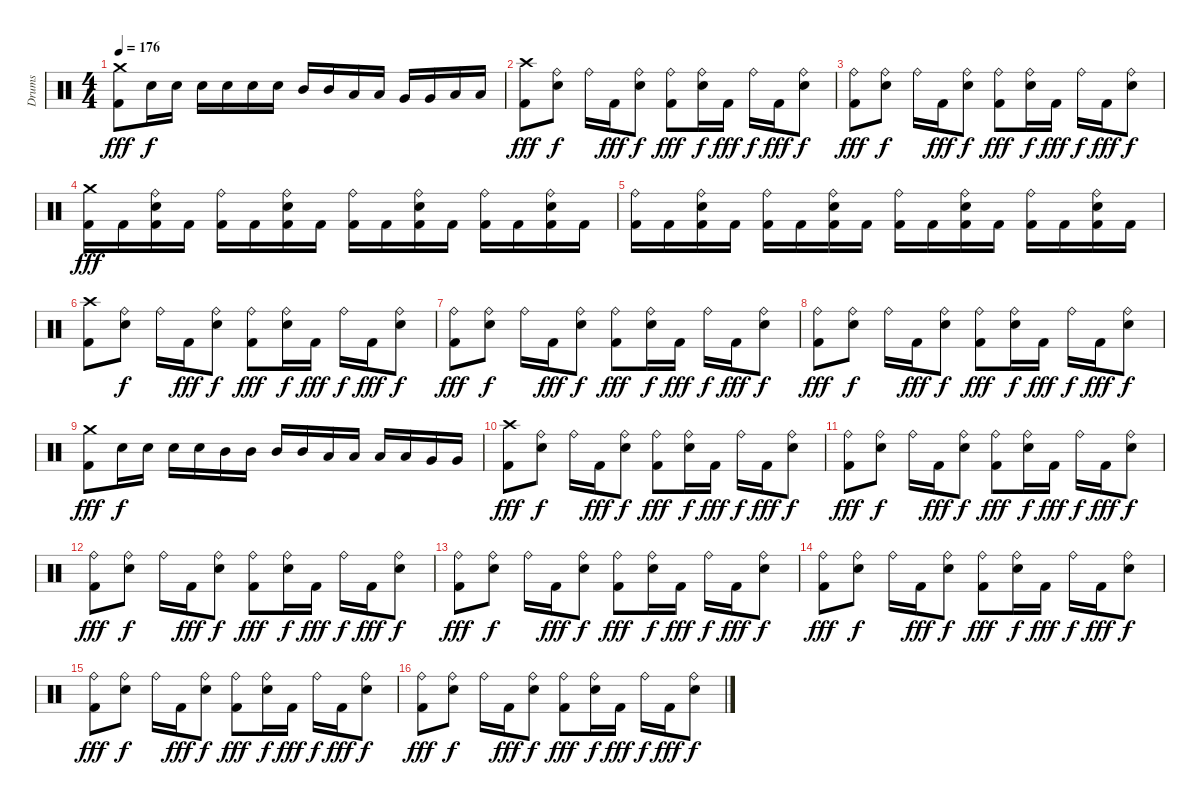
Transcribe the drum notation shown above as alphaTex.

\track ("Drums" "Drums") {instrument percussion}
\staff {score}
\articulation defaults
\ts (4 4)
\tempo 176
\clef neutral
\ks c
("Crash medium (hit)" "Kick (hit) 2").8{dy fff} "Snare (hit) 2".16{dy f} "Snare (hit) 2".16 "Snare (hit) 2".16 "Snare (hit) 2".16 "Snare (hit) 2".16 "Snare (hit) 2".16 "Mid Tom (hit)".16 "Mid Tom (hit)".16 "Low Tom (hit)".16 "Low Tom (hit)".16 "Very Low Tom (hit)".16 "Very Low Tom (hit)".16 "Low Floor Tom (hit)".16 "Low Floor Tom (hit)".16 |
("Crash high (hit)" "Kick (hit) 2").8{dy fff} ("Ride (bell)" "Snare (hit) 2").8{dy f} "Ride (bell)".16 "Kick (hit) 2".16{dy fff} ("Ride (bell)" "Snare (hit) 2").8{dy f} ("Ride (bell)" "Kick (hit) 2").8{dy fff} ("Ride (bell)" "Snare (hit) 2").16{dy f} "Kick (hit) 2".16{dy fff} "Ride (bell)".16{dy f} "Kick (hit) 2".16{dy fff} ("Ride (bell)" "Snare (hit) 2").8{dy f} |
("Ride (bell)" "Kick (hit) 2").8{dy fff} ("Ride (bell)" "Snare (hit) 2").8{dy f} "Ride (bell)".16 "Kick (hit) 2".16{dy fff} ("Ride (bell)" "Snare (hit) 2").8{dy f} ("Ride (bell)" "Kick (hit) 2").8{dy fff} ("Ride (bell)" "Snare (hit) 2").16{dy f} "Kick (hit) 2".16{dy fff} "Ride (bell)".16{dy f} "Kick (hit) 2".16{dy fff} ("Ride (bell)" "Snare (hit) 2").8{dy f} |
("Crash medium (hit)" "Kick (hit) 2").16{dy fff} "Kick (hit) 2".16 ("Ride (bell)" "Snare (hit) 2" "Kick (hit) 2").16 "Kick (hit) 2".16 ("Ride (bell)" "Kick (hit) 2").16 "Kick (hit) 2".16 ("Ride (bell)" "Snare (hit) 2" "Kick (hit) 2").16 "Kick (hit) 2".16 ("Ride (bell)" "Kick (hit) 2").16 "Kick (hit) 2".16 ("Ride (bell)" "Snare (hit) 2" "Kick (hit) 2").16 "Kick (hit) 2".16 ("Ride (bell)" "Kick (hit) 2").16 "Kick (hit) 2".16 ("Ride (bell)" "Snare (hit) 2" "Kick (hit) 2").16 "Kick (hit) 2".16 |
("Ride (bell)" "Kick (hit) 2").16 "Kick (hit) 2".16 ("Ride (bell)" "Snare (hit) 2" "Kick (hit) 2").16 "Kick (hit) 2".16 ("Ride (bell)" "Kick (hit) 2").16 "Kick (hit) 2".16 ("Ride (bell)" "Snare (hit) 2" "Kick (hit) 2").16 "Kick (hit) 2".16 ("Ride (bell)" "Kick (hit) 2").16 "Kick (hit) 2".16 ("Ride (bell)" "Snare (hit) 2" "Kick (hit) 2").16 "Kick (hit) 2".16 ("Ride (bell)" "Kick (hit) 2").16 "Kick (hit) 2".16 ("Ride (bell)" "Snare (hit) 2" "Kick (hit) 2").16 "Kick (hit) 2".16 |
("Crash high (hit)" "Kick (hit) 2").8 ("Ride (bell)" "Snare (hit) 2").8{dy f} "Ride (bell)".16 "Kick (hit) 2".16{dy fff} ("Ride (bell)" "Snare (hit) 2").8{dy f} ("Ride (bell)" "Kick (hit) 2").8{dy fff} ("Ride (bell)" "Snare (hit) 2").16{dy f} "Kick (hit) 2".16{dy fff} "Ride (bell)".16{dy f} "Kick (hit) 2".16{dy fff} ("Ride (bell)" "Snare (hit) 2").8{dy f} |
("Ride (bell)" "Kick (hit) 2").8{dy fff} ("Ride (bell)" "Snare (hit) 2").8{dy f} "Ride (bell)".16 "Kick (hit) 2".16{dy fff} ("Ride (bell)" "Snare (hit) 2").8{dy f} ("Ride (bell)" "Kick (hit) 2").8{dy fff} ("Ride (bell)" "Snare (hit) 2").16{dy f} "Kick (hit) 2".16{dy fff} "Ride (bell)".16{dy f} "Kick (hit) 2".16{dy fff} ("Ride (bell)" "Snare (hit) 2").8{dy f} |
("Ride (bell)" "Kick (hit) 2").8{dy fff} ("Ride (bell)" "Snare (hit) 2").8{dy f} "Ride (bell)".16 "Kick (hit) 2".16{dy fff} ("Ride (bell)" "Snare (hit) 2").8{dy f} ("Ride (bell)" "Kick (hit) 2").8{dy fff} ("Ride (bell)" "Snare (hit) 2").16{dy f} "Kick (hit) 2".16{dy fff} "Ride (bell)".16{dy f} "Kick (hit) 2".16{dy fff} ("Ride (bell)" "Snare (hit) 2").8{dy f} |
("Crash medium (hit)" "Kick (hit) 2").8{dy fff} "Snare (hit) 2".16{dy f} "Snare (hit) 2".16 "Snare (hit) 2".16 "Snare (hit) 2".16 "Mid Tom (hit)".16 "Mid Tom (hit)".16 "Mid Tom (hit)".16 "Mid Tom (hit)".16 "Low Tom (hit)".16 "Low Tom (hit)".16 "Low Tom (hit)".16 "Low Tom (hit)".16 "Very Low Tom (hit)".16 "Very Low Tom (hit)".16 |
("Crash high (hit)" "Kick (hit) 2").8{dy fff} ("Ride (bell)" "Snare (hit) 2").8{dy f} "Ride (bell)".16 "Kick (hit) 2".16{dy fff} ("Ride (bell)" "Snare (hit) 2").8{dy f} ("Ride (bell)" "Kick (hit) 2").8{dy fff} ("Ride (bell)" "Snare (hit) 2").16{dy f} "Kick (hit) 2".16{dy fff} "Ride (bell)".16{dy f} "Kick (hit) 2".16{dy fff} ("Ride (bell)" "Snare (hit) 2").8{dy f} |
("Ride (bell)" "Kick (hit) 2").8{dy fff} ("Ride (bell)" "Snare (hit) 2").8{dy f} "Ride (bell)".16 "Kick (hit) 2".16{dy fff} ("Ride (bell)" "Snare (hit) 2").8{dy f} ("Ride (bell)" "Kick (hit) 2").8{dy fff} ("Ride (bell)" "Snare (hit) 2").16{dy f} "Kick (hit) 2".16{dy fff} "Ride (bell)".16{dy f} "Kick (hit) 2".16{dy fff} ("Ride (bell)" "Snare (hit) 2").8{dy f} |
("Ride (bell)" "Kick (hit) 2").8{dy fff} ("Ride (bell)" "Snare (hit) 2").8{dy f} "Ride (bell)".16 "Kick (hit) 2".16{dy fff} ("Ride (bell)" "Snare (hit) 2").8{dy f} ("Ride (bell)" "Kick (hit) 2").8{dy fff} ("Ride (bell)" "Snare (hit) 2").16{dy f} "Kick (hit) 2".16{dy fff} "Ride (bell)".16{dy f} "Kick (hit) 2".16{dy fff} ("Ride (bell)" "Snare (hit) 2").8{dy f} |
("Ride (bell)" "Kick (hit) 2").8{dy fff} ("Ride (bell)" "Snare (hit) 2").8{dy f} "Ride (bell)".16 "Kick (hit) 2".16{dy fff} ("Ride (bell)" "Snare (hit) 2").8{dy f} ("Ride (bell)" "Kick (hit) 2").8{dy fff} ("Ride (bell)" "Snare (hit) 2").16{dy f} "Kick (hit) 2".16{dy fff} "Ride (bell)".16{dy f} "Kick (hit) 2".16{dy fff} ("Ride (bell)" "Snare (hit) 2").8{dy f} |
("Ride (bell)" "Kick (hit) 2").8{dy fff} ("Ride (bell)" "Snare (hit) 2").8{dy f} "Ride (bell)".16 "Kick (hit) 2".16{dy fff} ("Ride (bell)" "Snare (hit) 2").8{dy f} ("Ride (bell)" "Kick (hit) 2").8{dy fff} ("Ride (bell)" "Snare (hit) 2").16{dy f} "Kick (hit) 2".16{dy fff} "Ride (bell)".16{dy f} "Kick (hit) 2".16{dy fff} ("Ride (bell)" "Snare (hit) 2").8{dy f} |
("Ride (bell)" "Kick (hit) 2").8{dy fff} ("Ride (bell)" "Snare (hit) 2").8{dy f} "Ride (bell)".16 "Kick (hit) 2".16{dy fff} ("Ride (bell)" "Snare (hit) 2").8{dy f} ("Ride (bell)" "Kick (hit) 2").8{dy fff} ("Ride (bell)" "Snare (hit) 2").16{dy f} "Kick (hit) 2".16{dy fff} "Ride (bell)".16{dy f} "Kick (hit) 2".16{dy fff} ("Ride (bell)" "Snare (hit) 2").8{dy f} |
("Ride (bell)" "Kick (hit) 2").8{dy fff} ("Ride (bell)" "Snare (hit) 2").8{dy f} "Ride (bell)".16 "Kick (hit) 2".16{dy fff} ("Ride (bell)" "Snare (hit) 2").8{dy f} ("Ride (bell)" "Kick (hit) 2").8{dy fff} ("Ride (bell)" "Snare (hit) 2").16{dy f} "Kick (hit) 2".16{dy fff} "Ride (bell)".16{dy f} "Kick (hit) 2".16{dy fff} ("Ride (bell)" "Snare (hit) 2").8{dy f}
